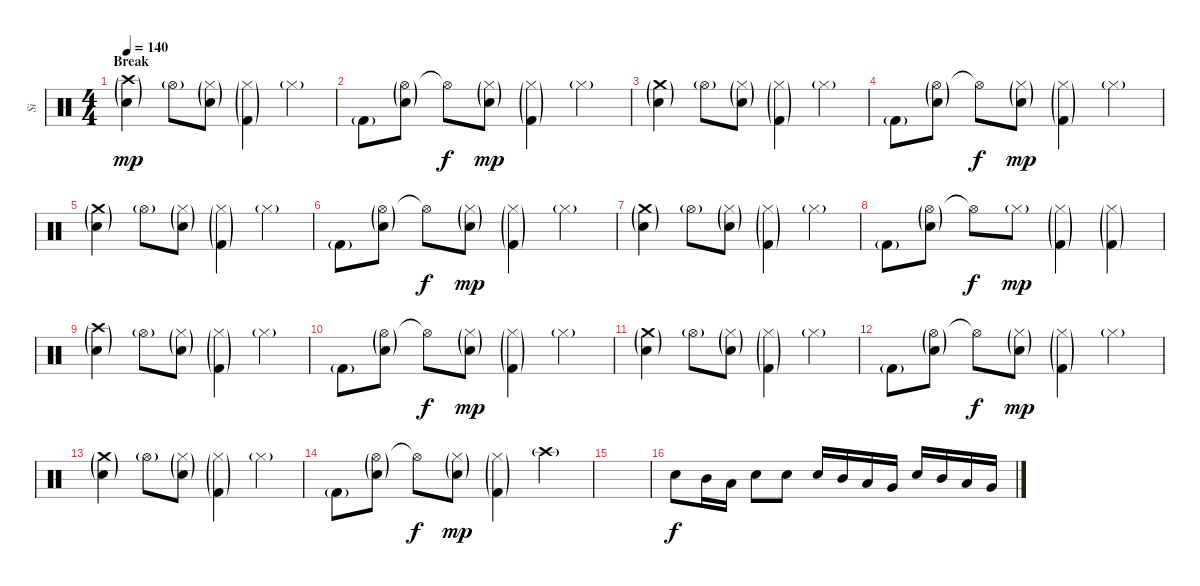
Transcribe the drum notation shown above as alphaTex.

\track ("Si" "Si") {instrument percussion}
\staff {score}
\articulation defaults
\ts (4 4)
\section ("" "Break")
\tempo 140
\clef neutral
\ks c
("Crash high (hit)"{g} "Electric Snare (hit)"{g}).4{dy mp} "Hi-Hat (open)"{g}.8 ("Hi-Hat (closed)"{g} "Electric Snare (hit)"{g}).8 ("Hi-Hat (closed)"{g} "Kick (hit) 2"{g}).4 "Hi-Hat (closed)"{g}.4 |
"Kick (hit) 2"{g}.8 ("Hi-Hat (open)"{g} "Electric Snare (hit)"{g}).8 "Hi-Hat (open)"{t}.8{dy f} ("Hi-Hat (closed)"{g} "Electric Snare (hit)"{g}).8{dy mp} ("Hi-Hat (closed)"{g} "Kick (hit) 2"{g}).4 "Hi-Hat (closed)"{g}.4 |
("Crash medium (hit)"{g} "Electric Snare (hit)"{g}).4 "Hi-Hat (open)"{g}.8 ("Hi-Hat (closed)"{g} "Electric Snare (hit)"{g}).8 ("Hi-Hat (closed)"{g} "Kick (hit) 2"{g}).4 "Hi-Hat (closed)"{g}.4 |
"Kick (hit) 2"{g}.8 ("Hi-Hat (open)"{g} "Electric Snare (hit)"{g}).8 "Hi-Hat (open)"{t}.8{dy f} ("Hi-Hat (closed)"{g} "Electric Snare (hit)"{g}).8{dy mp} ("Hi-Hat (closed)"{g} "Kick (hit) 2"{g}).4 "Hi-Hat (closed)"{g}.4 |
("Crash medium (hit)"{g} "Electric Snare (hit)"{g}).4 "Hi-Hat (open)"{g}.8 ("Hi-Hat (closed)"{g} "Electric Snare (hit)"{g}).8 ("Hi-Hat (closed)"{g} "Kick (hit) 2"{g}).4 "Hi-Hat (closed)"{g}.4 |
"Kick (hit) 2"{g}.8 ("Hi-Hat (open)"{g} "Electric Snare (hit)"{g}).8 "Hi-Hat (open)"{t}.8{dy f} ("Hi-Hat (closed)"{g} "Electric Snare (hit)"{g}).8{dy mp} ("Hi-Hat (closed)"{g} "Kick (hit) 2"{g}).4 "Hi-Hat (closed)"{g}.4 |
("Crash medium (hit)"{g} "Electric Snare (hit)"{g}).4 "Hi-Hat (open)"{g}.8 ("Hi-Hat (closed)"{g} "Electric Snare (hit)"{g}).8 ("Hi-Hat (closed)"{g} "Kick (hit) 2"{g}).4 "Hi-Hat (closed)"{g}.4 |
"Kick (hit) 2"{g}.8 ("Hi-Hat (open)"{g} "Electric Snare (hit)"{g}).8 "Hi-Hat (open)"{t}.8{dy f} "Hi-Hat (closed)"{g}.8{dy mp} ("Hi-Hat (closed)"{g} "Kick (hit) 2"{g}).4 ("Hi-Hat (closed)"{g} "Kick (hit) 2"{g}).4 |
("Crash high (hit)"{g} "Electric Snare (hit)"{g}).4 "Hi-Hat (open)"{g}.8 ("Hi-Hat (closed)"{g} "Electric Snare (hit)"{g}).8 ("Hi-Hat (closed)"{g} "Kick (hit) 2"{g}).4 "Hi-Hat (closed)"{g}.4 |
"Kick (hit) 2"{g}.8 ("Hi-Hat (open)"{g} "Electric Snare (hit)"{g}).8 "Hi-Hat (open)"{t}.8{dy f} ("Hi-Hat (closed)"{g} "Electric Snare (hit)"{g}).8{dy mp} ("Hi-Hat (closed)"{g} "Kick (hit) 2"{g}).4 "Hi-Hat (closed)"{g}.4 |
("Crash medium (hit)"{g} "Electric Snare (hit)"{g}).4 "Hi-Hat (open)"{g}.8 ("Hi-Hat (closed)"{g} "Electric Snare (hit)"{g}).8 ("Hi-Hat (closed)"{g} "Kick (hit) 2"{g}).4 "Hi-Hat (closed)"{g}.4 |
"Kick (hit) 2"{g}.8 ("Hi-Hat (open)"{g} "Electric Snare (hit)"{g}).8 "Hi-Hat (open)"{t}.8{dy f} ("Hi-Hat (closed)"{g} "Electric Snare (hit)"{g}).8{dy mp} ("Hi-Hat (closed)"{g} "Kick (hit) 2"{g}).4 "Hi-Hat (closed)"{g}.4 |
("Crash medium (hit)"{g} "Electric Snare (hit)"{g}).4 "Hi-Hat (open)"{g}.8 ("Hi-Hat (closed)"{g} "Electric Snare (hit)"{g}).8 ("Hi-Hat (closed)"{g} "Kick (hit) 2"{g}).4 "Hi-Hat (closed)"{g}.4 |
"Kick (hit) 2"{g}.8 ("Hi-Hat (open)"{g} "Electric Snare (hit)"{g}).8 "Hi-Hat (open)"{t}.8{dy f} ("Hi-Hat (closed)"{g} "Electric Snare (hit)"{g}).8{dy mp} ("Hi-Hat (closed)"{g} "Kick (hit) 2"{g}).4 "Crash high (hit)"{g}.4 |
|
"Electric Snare (hit)".8{dy f} "Mid Tom (hit)".16 "Low Tom (hit)".16 "Electric Snare (hit)".8 "Electric Snare (hit)".8 "Electric Snare (hit)".16 "Mid Tom (hit)".16 "Low Tom (hit)".16 "Very Low Tom (hit)".16 "Electric Snare (hit)".16 "Mid Tom (hit)".16 "Low Tom (hit)".16 "Very Low Tom (hit)".16
